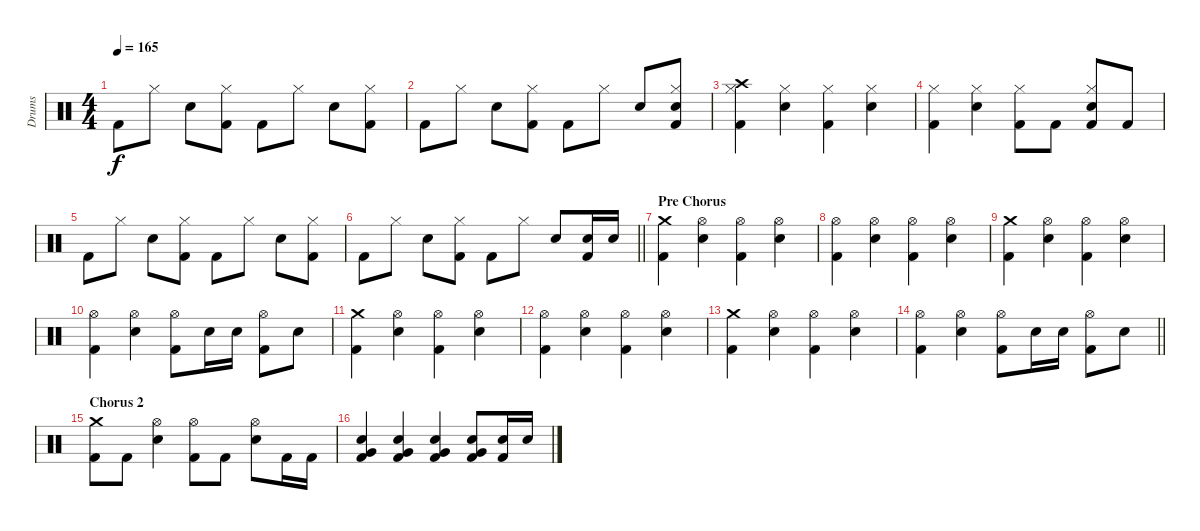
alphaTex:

\track ("Drums" "Drums") {instrument percussion}
\staff {score}
\articulation defaults
\ts (4 4)
\tempo 165
\clef neutral
\ks c "Kick (hit) 2".8{dy f} "Hi-Hat (closed)".8 "Electric Snare (hit)".8
("Hi-Hat (closed)" "Kick (hit) 2").8 "Kick (hit) 2".8 "Hi-Hat (closed)".8 "Electric Snare (hit)".8 ("Hi-Hat (closed)" "Kick (hit) 2").8 |
"Kick (hit) 2".8 "Hi-Hat (closed)".8 "Electric Snare (hit)".8 ("Hi-Hat (closed)" "Kick (hit) 2").8 "Kick (hit) 2".8 "Hi-Hat (closed)".8 "Electric Snare (hit)".8 ("Hi-Hat (closed)" "Electric Snare (hit)" "Kick (hit) 2").8 |
("Hi-Hat (closed)" "Crash high (hit)" "Kick (hit) 2").4 ("Hi-Hat (closed)" "Electric Snare (hit)").4 ("Hi-Hat (closed)" "Kick (hit) 2").4 ("Hi-Hat (closed)" "Electric Snare (hit)").4 |
("Hi-Hat (closed)" "Kick (hit) 2").4 ("Hi-Hat (closed)" "Electric Snare (hit)").4 ("Hi-Hat (closed)" "Kick (hit) 2").8 "Kick (hit) 2".8 ("Hi-Hat (closed)" "Electric Snare (hit)" "Kick (hit) 2").8 "Kick (hit) 2".8 |
"Kick (hit) 2".8 "Hi-Hat (closed)".8 "Electric Snare (hit)".8 ("Hi-Hat (closed)" "Kick (hit) 2").8 "Kick (hit) 2".8 "Hi-Hat (closed)".8 "Electric Snare (hit)".8 ("Hi-Hat (closed)" "Kick (hit) 2").8 |
\barLineRight lightlight "Kick (hit) 2".8 "Hi-Hat (closed)".8 "Electric Snare (hit)".8
("Hi-Hat (closed)" "Kick (hit) 2").8 "Kick (hit) 2".8 "Hi-Hat (closed)".8 "Electric Snare (hit)".8 ("Electric Snare (hit)" "Kick (hit) 2").16 "Electric Snare (hit)".16 |
\section ("" "Pre Chorus")
("Crash medium (hit)" "Kick (hit) 2").4 ("Hi-Hat (open)" "Electric Snare (hit)").4 ("Hi-Hat (open)" "Kick (hit) 2").4 ("Hi-Hat (open)" "Electric Snare (hit)").4 |
("Hi-Hat (open)" "Kick (hit) 2").4 ("Hi-Hat (open)" "Electric Snare (hit)").4 ("Hi-Hat (open)" "Kick (hit) 2").4 ("Hi-Hat (open)" "Electric Snare (hit)").4 |
("Crash medium (hit)" "Kick (hit) 2").4 ("Hi-Hat (open)" "Electric Snare (hit)").4 ("Hi-Hat (open)" "Kick (hit) 2").4 ("Hi-Hat (open)" "Electric Snare (hit)").4 |
("Hi-Hat (open)" "Kick (hit) 2").4 ("Hi-Hat (open)" "Electric Snare (hit)").4 ("Hi-Hat (open)" "Kick (hit) 2").8 "Electric Snare (hit)".16 "Electric Snare (hit)".16 ("Hi-Hat (open)" "Kick (hit) 2").8 "Electric Snare (hit)".8 |
("Crash medium (hit)" "Kick (hit) 2").4 ("Hi-Hat (open)" "Electric Snare (hit)").4 ("Hi-Hat (open)" "Kick (hit) 2").4 ("Hi-Hat (open)" "Electric Snare (hit)").4 |
("Hi-Hat (open)" "Kick (hit) 2").4 ("Hi-Hat (open)" "Electric Snare (hit)").4 ("Hi-Hat (open)" "Kick (hit) 2").4 ("Hi-Hat (open)" "Electric Snare (hit)").4 |
("Crash medium (hit)" "Kick (hit) 2").4 ("Hi-Hat (open)" "Electric Snare (hit)").4 ("Hi-Hat (open)" "Kick (hit) 2").4 ("Hi-Hat (open)" "Electric Snare (hit)").4 |
\barLineRight lightlight
("Hi-Hat (open)" "Kick (hit) 2").4 ("Hi-Hat (open)" "Electric Snare (hit)").4 ("Hi-Hat (open)" "Kick (hit) 2").8 "Electric Snare (hit)".16 "Electric Snare (hit)".16 ("Hi-Hat (open)" "Kick (hit) 2").8 "Electric Snare (hit)".8 |
\section ("" "Chorus 2")
("Crash medium (hit)" "Kick (hit) 2").8 "Kick (hit) 2".8 ("Hi-Hat (open)" "Electric Snare (hit)").4 ("Hi-Hat (open)" "Kick (hit) 2").8 "Kick (hit) 2".8 ("Hi-Hat (open)" "Electric Snare (hit)").8 "Kick (hit) 2".16 "Kick (hit) 2".16 |
("Very Low Tom (hit)" "Electric Snare (hit)" "Kick (hit) 2").4 ("Very Low Tom (hit)" "Electric Snare (hit)" "Kick (hit) 2").4 ("Very Low Tom (hit)" "Electric Snare (hit)" "Kick (hit) 2").4 ("Very Low Tom (hit)" "Electric Snare (hit)" "Kick (hit) 2").8 ("Electric Snare (hit)" "Kick (hit) 2").16 "Electric Snare (hit)".16
